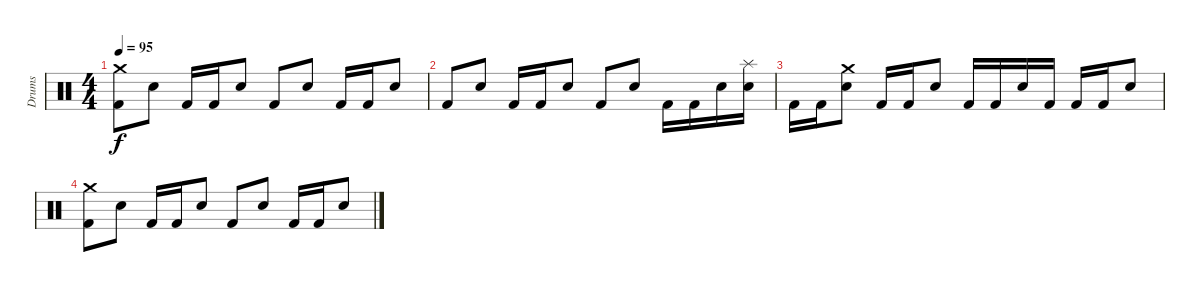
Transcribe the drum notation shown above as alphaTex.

\track ("Drums" "Drums") {instrument percussion}
\staff {score}
\articulation defaults
\ts (4 4)
\tempo 95
\clef neutral
\ks c
("Crash medium (hit)" "Kick (hit) 2").8{dy f} "Electric Snare (hit)".8 "Kick (hit) 2".16 "Kick (hit) 2".16 "Electric Snare (hit)".8 "Kick (hit) 2".8 "Electric Snare (hit)".8 "Kick (hit) 2".16 "Kick (hit) 2".16 "Electric Snare (hit)".8 |
"Kick (hit) 2".8 "Electric Snare (hit)".8 "Kick (hit) 2".16 "Kick (hit) 2".16 "Electric Snare (hit)".8 "Kick (hit) 2".8 "Electric Snare (hit)".8 "Kick (hit) 2".16 "Kick (hit) 2".16 "Electric Snare (hit)".16 ("Splash (hit)" "Electric Snare (hit)").16 |
"Kick (hit) 2".16 "Kick (hit) 2".16 ("Crash medium (hit)" "Electric Snare (hit)").8 "Kick (hit) 2".16 "Kick (hit) 2".16 "Electric Snare (hit)".8 "Kick (hit) 2".16 "Kick (hit) 2".16 "Electric Snare (hit)".16 "Kick (hit) 2".16 "Kick (hit) 2".16 "Kick (hit) 2".16 "Electric Snare (hit)".8 |
("Crash medium (hit)" "Kick (hit) 2").8 "Electric Snare (hit)".8 "Kick (hit) 2".16 "Kick (hit) 2".16 "Electric Snare (hit)".8 "Kick (hit) 2".8 "Electric Snare (hit)".8 "Kick (hit) 2".16 "Kick (hit) 2".16 "Electric Snare (hit)".8
